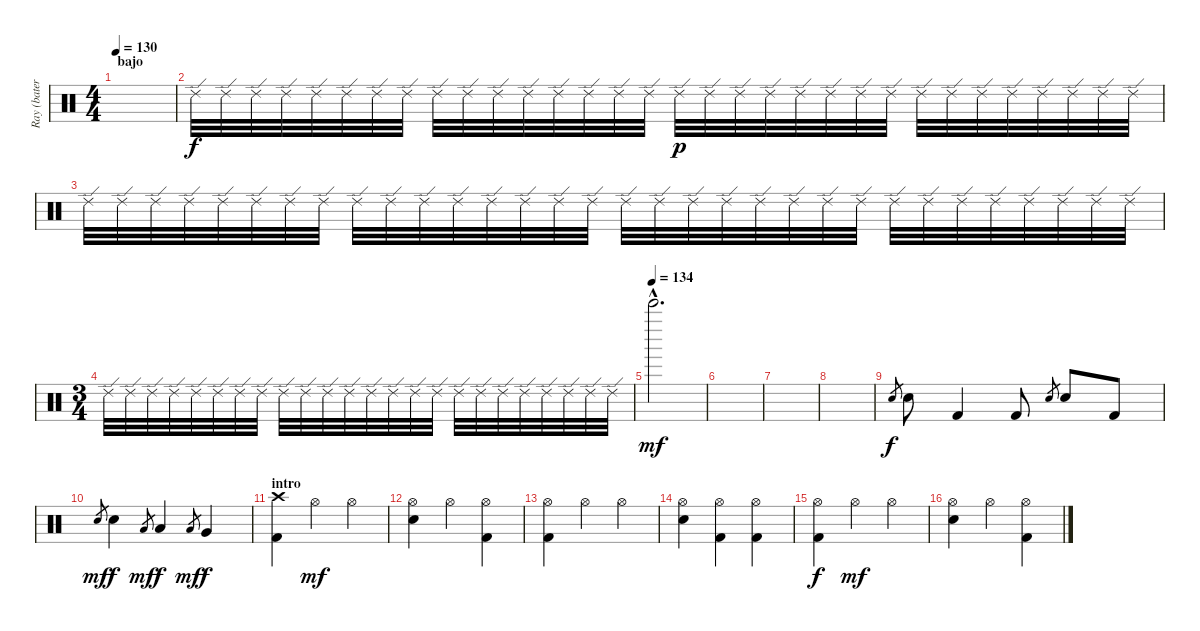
\track ("Ray (batería)" "Ray (bater") {instrument percussion}
\staff {score}
\articulation defaults
\ts (4 4)
\section ("" "bajo")
\tempo 130
\clef neutral
\ks c
|
"Ride (edge) 2".32 "Ride (edge) 2".32 "Ride (edge) 2".32 "Ride (edge) 2".32 "Ride (edge) 2".32 "Ride (edge) 2".32 "Ride (edge) 2".32 "Ride (edge) 2".32 "Ride (edge) 2".32 "Ride (edge) 2".32 "Ride (edge) 2".32 "Ride (edge) 2".32 "Ride (edge) 2".32 "Ride (edge) 2".32 "Ride (edge) 2".32 "Ride (edge) 2".32 "Ride (edge) 2".32{dy p} "Ride (edge) 2".32 "Ride (edge) 2".32 "Ride (edge) 2".32 "Ride (edge) 2".32 "Ride (edge) 2".32 "Ride (edge) 2".32 "Ride (edge) 2".32 "Ride (edge) 2".32 "Ride (edge) 2".32 "Ride (edge) 2".32 "Ride (edge) 2".32 "Ride (edge) 2".32 "Ride (edge) 2".32 "Ride (edge) 2".32 "Ride (edge) 2".32 |
"Ride (edge) 2".32 "Ride (edge) 2".32 "Ride (edge) 2".32 "Ride (edge) 2".32 "Ride (edge) 2".32 "Ride (edge) 2".32 "Ride (edge) 2".32 "Ride (edge) 2".32 "Ride (edge) 2".32 "Ride (edge) 2".32 "Ride (edge) 2".32 "Ride (edge) 2".32 "Ride (edge) 2".32 "Ride (edge) 2".32 "Ride (edge) 2".32 "Ride (edge) 2".32 "Ride (edge) 2".32 "Ride (edge) 2".32 "Ride (edge) 2".32 "Ride (edge) 2".32 "Ride (edge) 2".32 "Ride (edge) 2".32 "Ride (edge) 2".32 "Ride (edge) 2".32 "Ride (edge) 2".32 "Ride (edge) 2".32 "Ride (edge) 2".32 "Ride (edge) 2".32 "Ride (edge) 2".32 "Ride (edge) 2".32 "Ride (edge) 2".32 "Ride (edge) 2".32 |
\ts (3 4)
"Ride (edge) 2".32 "Ride (edge) 2".32 "Ride (edge) 2".32 "Ride (edge) 2".32 "Ride (edge) 2".32 "Ride (edge) 2".32 "Ride (edge) 2".32 "Ride (edge) 2".32 "Ride (edge) 2".32 "Ride (edge) 2".32 "Ride (edge) 2".32 "Ride (edge) 2".32 "Ride (edge) 2".32 "Ride (edge) 2".32 "Ride (edge) 2".32 "Ride (edge) 2".32 "Ride (edge) 2".32 "Ride (edge) 2".32 "Ride (edge) 2".32 "Ride (edge) 2".32 "Ride (edge) 2".32 "Ride (edge) 2".32 "Ride (edge) 2".32 "Ride (edge) 2".32 |
\tempo (134)
"Bell Tree (hit)"{hac}.2{d dy mf} |
|
|
|
"Snare (hit) 2".8{gr dy f} "Snare (hit) 2".8 "Kick (hit) 2".4 "Kick (hit) 2".8 "Snare (hit) 2".8{gr} "Snare (hit) 2".8 "Kick (hit) 2".8 |
"Snare (hit) 2".8{gr dy mf} "Snare (hit) 2".4{dy f} "Low Floor Tom (hit)".8{gr dy mf} "Low Tom (hit)".4{dy f} "Low Floor Tom (hit)".8{gr dy mf} "Very Low Tom (hit)".4{dy f} |
\section ("" "intro")
("Crash high (hit)" "Kick (hit) 2").4 "Hi-Hat (open)".4{dy mf} "Hi-Hat (open)".4 |
("Hi-Hat (open)" "Snare (hit) 2").4 "Hi-Hat (open)".4 ("Hi-Hat (open)" "Kick (hit) 2").4 |
("Hi-Hat (open)" "Kick (hit) 2").4 "Hi-Hat (open)".4 "Hi-Hat (open)".4 |
("Hi-Hat (open)" "Snare (hit) 2").4 ("Hi-Hat (open)" "Kick (hit) 2").4 ("Hi-Hat (open)" "Kick (hit) 2").4 |
("Hi-Hat (open)" "Kick (hit) 2").4{dy f} "Hi-Hat (open)".4{dy mf} "Hi-Hat (open)".4 |
("Hi-Hat (open)" "Snare (hit) 2").4 "Hi-Hat (open)".4 ("Hi-Hat (open)" "Kick (hit) 2").4
